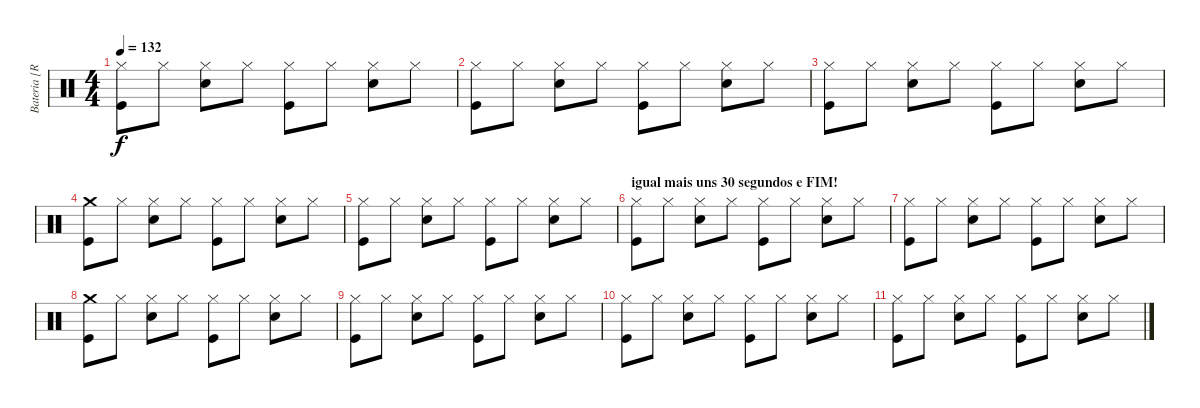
\track ("Bateria [Ricardo Confessori]" "Bateria [R") {instrument percussion}
\staff {score}
\articulation defaults
\ts (4 4)
\tempo 132
\clef neutral
\ks c
("Hi-Hat (closed)" "Kick (hit)").8{dy f} "Hi-Hat (closed)".8 ("Hi-Hat (closed)" "Electric Snare (hit)").8 "Hi-Hat (closed)".8 ("Hi-Hat (closed)" "Kick (hit)").8 "Hi-Hat (closed)".8 ("Hi-Hat (closed)" "Electric Snare (hit)").8 "Hi-Hat (closed)".8 |
("Hi-Hat (closed)" "Kick (hit)").8 "Hi-Hat (closed)".8 ("Hi-Hat (closed)" "Electric Snare (hit)").8 "Hi-Hat (closed)".8 ("Hi-Hat (closed)" "Kick (hit)").8 "Hi-Hat (closed)".8 ("Hi-Hat (closed)" "Electric Snare (hit)").8 "Hi-Hat (closed)".8 |
("Hi-Hat (closed)" "Kick (hit)").8 "Hi-Hat (closed)".8 ("Hi-Hat (closed)" "Electric Snare (hit)").8 "Hi-Hat (closed)".8 ("Hi-Hat (closed)" "Kick (hit)").8 "Hi-Hat (closed)".8 ("Hi-Hat (closed)" "Electric Snare (hit)").8 "Hi-Hat (closed)".8 |
("Crash medium (hit)" "Kick (hit)").8{volume 0} "Hi-Hat (closed)".8 ("Hi-Hat (closed)" "Electric Snare (hit)").8 "Hi-Hat (closed)".8 ("Hi-Hat (closed)" "Kick (hit)").8 "Hi-Hat (closed)".8 ("Hi-Hat (closed)" "Electric Snare (hit)").8 "Hi-Hat (closed)".8 |
("Hi-Hat (closed)" "Kick (hit)").8 "Hi-Hat (closed)".8 ("Hi-Hat (closed)" "Electric Snare (hit)").8 "Hi-Hat (closed)".8 ("Hi-Hat (closed)" "Kick (hit)").8 "Hi-Hat (closed)".8 ("Hi-Hat (closed)" "Electric Snare (hit)").8 "Hi-Hat (closed)".8 |
\section ("" "igual mais uns 30 segundos e FIM!")
("Hi-Hat (closed)" "Kick (hit)").8 "Hi-Hat (closed)".8 ("Hi-Hat (closed)" "Electric Snare (hit)").8 "Hi-Hat (closed)".8 ("Hi-Hat (closed)" "Kick (hit)").8 "Hi-Hat (closed)".8 ("Hi-Hat (closed)" "Electric Snare (hit)").8 "Hi-Hat (closed)".8 |
("Hi-Hat (closed)" "Kick (hit)").8 "Hi-Hat (closed)".8 ("Hi-Hat (closed)" "Electric Snare (hit)").8 "Hi-Hat (closed)".8 ("Hi-Hat (closed)" "Kick (hit)").8 "Hi-Hat (closed)".8 ("Hi-Hat (closed)" "Electric Snare (hit)").8 "Hi-Hat (closed)".8 |
("Crash medium (hit)" "Kick (hit)").8 "Hi-Hat (closed)".8 ("Hi-Hat (closed)" "Electric Snare (hit)").8 "Hi-Hat (closed)".8 ("Hi-Hat (closed)" "Kick (hit)").8 "Hi-Hat (closed)".8 ("Hi-Hat (closed)" "Electric Snare (hit)").8 "Hi-Hat (closed)".8 |
("Hi-Hat (closed)" "Kick (hit)").8 "Hi-Hat (closed)".8 ("Hi-Hat (closed)" "Electric Snare (hit)").8 "Hi-Hat (closed)".8 ("Hi-Hat (closed)" "Kick (hit)").8 "Hi-Hat (closed)".8 ("Hi-Hat (closed)" "Electric Snare (hit)").8 "Hi-Hat (closed)".8 |
("Hi-Hat (closed)" "Kick (hit)").8 "Hi-Hat (closed)".8 ("Hi-Hat (closed)" "Electric Snare (hit)").8 "Hi-Hat (closed)".8 ("Hi-Hat (closed)" "Kick (hit)").8 "Hi-Hat (closed)".8 ("Hi-Hat (closed)" "Electric Snare (hit)").8 "Hi-Hat (closed)".8 |
("Hi-Hat (closed)" "Kick (hit)").8 "Hi-Hat (closed)".8 ("Hi-Hat (closed)" "Electric Snare (hit)").8 "Hi-Hat (closed)".8 ("Hi-Hat (closed)" "Kick (hit)").8 "Hi-Hat (closed)".8 ("Hi-Hat (closed)" "Electric Snare (hit)").8 "Hi-Hat (closed)".8
